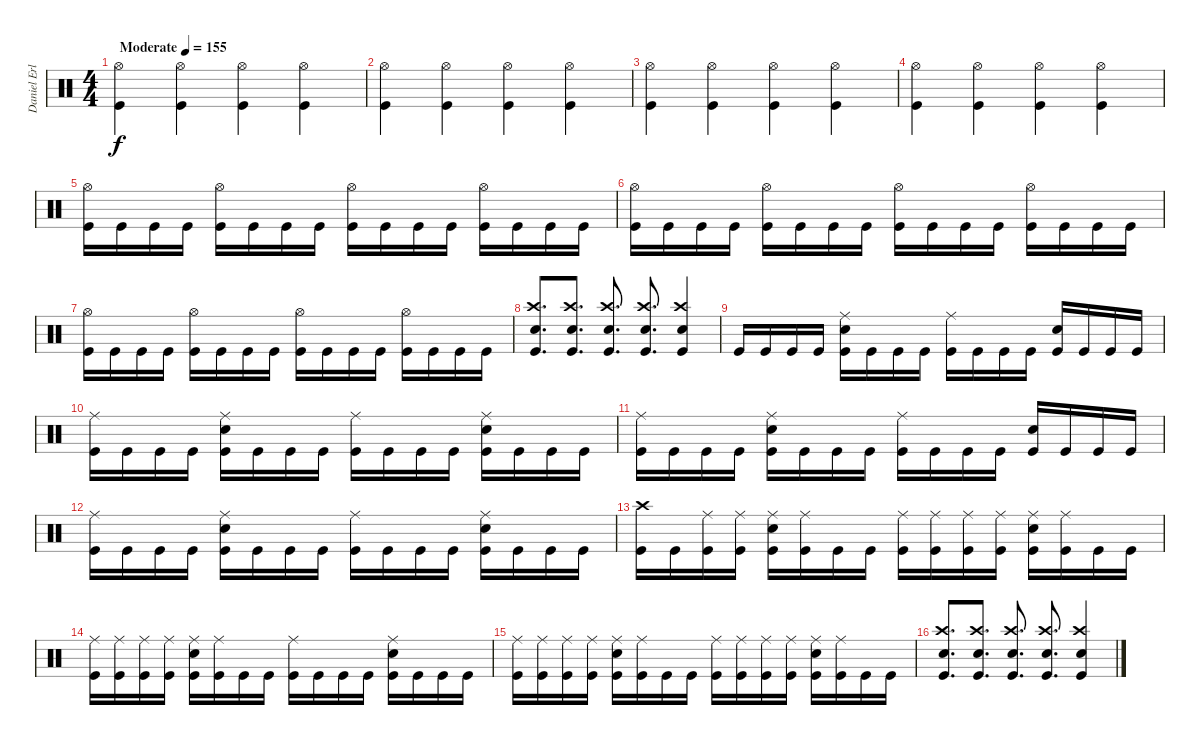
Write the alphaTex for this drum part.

\track ("Daniel Erlandsson" "Daniel Erl") {instrument percussion}
\staff {score}
\articulation defaults
\ts (4 4)
\tempo (155 "Moderate")
\clef neutral
\ks c
("Hi-Hat (open)" "Kick (hit)").4{dy f} ("Hi-Hat (open)" "Kick (hit)").4 ("Hi-Hat (open)" "Kick (hit)").4 ("Hi-Hat (open)" "Kick (hit)").4 |
("Hi-Hat (open)" "Kick (hit)").4 ("Hi-Hat (open)" "Kick (hit)").4 ("Hi-Hat (open)" "Kick (hit)").4 ("Hi-Hat (open)" "Kick (hit)").4 |
("Hi-Hat (open)" "Kick (hit)").4 ("Hi-Hat (open)" "Kick (hit)").4 ("Hi-Hat (open)" "Kick (hit)").4 ("Hi-Hat (open)" "Kick (hit)").4 |
("Hi-Hat (open)" "Kick (hit)").4 ("Hi-Hat (open)" "Kick (hit)").4 ("Hi-Hat (open)" "Kick (hit)").4 ("Hi-Hat (open)" "Kick (hit)").4 |
("Hi-Hat (open)" "Kick (hit)").16 "Kick (hit)".16 "Kick (hit)".16 "Kick (hit)".16 ("Hi-Hat (open)" "Kick (hit)").16 "Kick (hit)".16 "Kick (hit)".16 "Kick (hit)".16 ("Hi-Hat (open)" "Kick (hit)").16 "Kick (hit)".16 "Kick (hit)".16 "Kick (hit)".16 ("Hi-Hat (open)" "Kick (hit)").16 "Kick (hit)".16 "Kick (hit)".16 "Kick (hit)".16 |
("Hi-Hat (open)" "Kick (hit)").16 "Kick (hit)".16 "Kick (hit)".16 "Kick (hit)".16 ("Hi-Hat (open)" "Kick (hit)").16 "Kick (hit)".16 "Kick (hit)".16 "Kick (hit)".16 ("Hi-Hat (open)" "Kick (hit)").16 "Kick (hit)".16 "Kick (hit)".16 "Kick (hit)".16 ("Hi-Hat (open)" "Kick (hit)").16 "Kick (hit)".16 "Kick (hit)".16 "Kick (hit)".16 |
("Hi-Hat (open)" "Kick (hit)").16 "Kick (hit)".16 "Kick (hit)".16 "Kick (hit)".16 ("Hi-Hat (open)" "Kick (hit)").16 "Kick (hit)".16 "Kick (hit)".16 "Kick (hit)".16 ("Hi-Hat (open)" "Kick (hit)").16 "Kick (hit)".16 "Kick (hit)".16 "Kick (hit)".16 ("Hi-Hat (open)" "Kick (hit)").16 "Kick (hit)".16 "Kick (hit)".16 "Kick (hit)".16 |
("Crash high (hit)" "Snare (hit) 2" "Kick (hit)").8{d} ("Crash high (hit)" "Snare (hit) 2" "Kick (hit)").8{d} ("Crash high (hit)" "Snare (hit) 2" "Kick (hit)").8{d} ("Crash high (hit)" "Snare (hit) 2" "Kick (hit)").8{d} ("Crash high (hit)" "Snare (hit) 2" "Kick (hit)").4 |
"Kick (hit)".16 "Kick (hit)".16 "Kick (hit)".16 "Kick (hit)".16 ("Ride (middle)" "Snare (hit) 2" "Kick (hit)").16 "Kick (hit)".16 "Kick (hit)".16 "Kick (hit)".16 ("Ride (middle)" "Kick (hit)").16 "Kick (hit)".16 "Kick (hit)".16 "Kick (hit)".16 ("Snare (hit) 2" "Kick (hit)").16 "Kick (hit)".16 "Kick (hit)".16 "Kick (hit)".16 |
("Ride (middle)" "Kick (hit)").16 "Kick (hit)".16 "Kick (hit)".16 "Kick (hit)".16 ("Ride (middle)" "Snare (hit) 2" "Kick (hit)").16 "Kick (hit)".16 "Kick (hit)".16 "Kick (hit)".16 ("Ride (middle)" "Kick (hit)").16 "Kick (hit)".16 "Kick (hit)".16 "Kick (hit)".16 ("Ride (middle)" "Snare (hit) 2" "Kick (hit)").16 "Kick (hit)".16 "Kick (hit)".16 "Kick (hit)".16 |
("Ride (middle)" "Kick (hit)").16 "Kick (hit)".16 "Kick (hit)".16 "Kick (hit)".16 ("Ride (middle)" "Snare (hit) 2" "Kick (hit)").16 "Kick (hit)".16 "Kick (hit)".16 "Kick (hit)".16 ("Ride (middle)" "Kick (hit)").16 "Kick (hit)".16 "Kick (hit)".16 "Kick (hit)".16 ("Snare (hit) 2" "Kick (hit)").16 "Kick (hit)".16 "Kick (hit)".16 "Kick (hit)".16 |
("Ride (middle)" "Kick (hit)").16 "Kick (hit)".16 "Kick (hit)".16 "Kick (hit)".16 ("Ride (middle)" "Snare (hit) 2" "Kick (hit)").16 "Kick (hit)".16 "Kick (hit)".16 "Kick (hit)".16 ("Ride (middle)" "Kick (hit)").16 "Kick (hit)".16 "Kick (hit)".16 "Kick (hit)".16 ("Ride (middle)" "Snare (hit) 2" "Kick (hit)").16 "Kick (hit)".16 "Kick (hit)".16 "Kick (hit)".16 |
("Crash high (hit)" "Kick (hit)").16 "Kick (hit)".16 ("Ride (middle)" "Kick (hit)").16 ("Ride (middle)" "Kick (hit)").16 ("Ride (middle)" "Snare (hit) 2" "Kick (hit)").16 ("Ride (middle)" "Kick (hit)").16 "Kick (hit)".16 "Kick (hit)".16 ("Ride (middle)" "Kick (hit)").16 ("Ride (middle)" "Kick (hit)").16 ("Ride (middle)" "Kick (hit)").16 ("Ride (middle)" "Kick (hit)").16 ("Ride (middle)" "Snare (hit) 2" "Kick (hit)").16 ("Ride (middle)" "Kick (hit)").16 "Kick (hit)".16 "Kick (hit)".16 |
("Ride (middle)" "Kick (hit)").16 ("Ride (middle)" "Kick (hit)").16 ("Ride (middle)" "Kick (hit)").16 ("Ride (middle)" "Kick (hit)").16 ("Ride (middle)" "Snare (hit) 2" "Kick (hit)").16 ("Ride (middle)" "Kick (hit)").16 "Kick (hit)".16 "Kick (hit)".16 ("Ride (middle)" "Kick (hit)").16 "Kick (hit)".16 "Kick (hit)".16 "Kick (hit)".16 ("Ride (middle)" "Snare (hit) 2" "Kick (hit)").16 "Kick (hit)".16 "Kick (hit)".16 "Kick (hit)".16 |
("Ride (middle)" "Kick (hit)").16 ("Ride (middle)" "Kick (hit)").16 ("Ride (middle)" "Kick (hit)").16 ("Ride (middle)" "Kick (hit)").16 ("Ride (middle)" "Snare (hit) 2" "Kick (hit)").16 ("Ride (middle)" "Kick (hit)").16 "Kick (hit)".16 "Kick (hit)".16 ("Ride (middle)" "Kick (hit)").16 ("Ride (middle)" "Kick (hit)").16 ("Ride (middle)" "Kick (hit)").16 ("Ride (middle)" "Kick (hit)").16 ("Ride (middle)" "Snare (hit) 2" "Kick (hit)").16 ("Ride (middle)" "Kick (hit)").16 "Kick (hit)".16 "Kick (hit)".16 |
("Crash high (hit)" "Snare (hit) 2" "Kick (hit)").8{d} ("Crash high (hit)" "Snare (hit) 2" "Kick (hit)").8{d} ("Crash high (hit)" "Snare (hit) 2" "Kick (hit)").8{d} ("Crash high (hit)" "Snare (hit) 2" "Kick (hit)").8{d} ("Crash high (hit)" "Snare (hit) 2" "Kick (hit)").4
